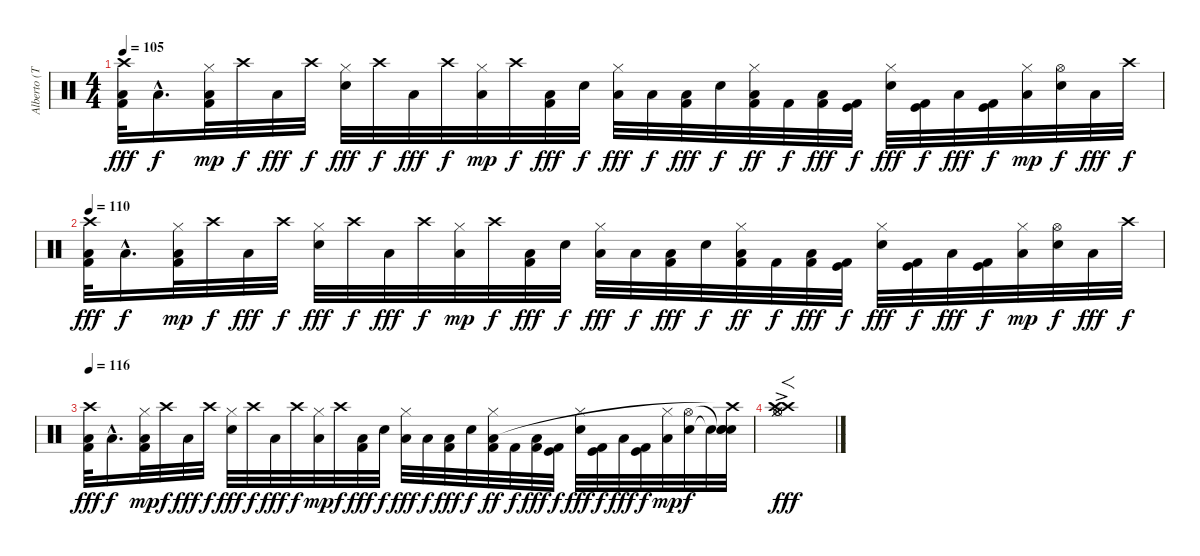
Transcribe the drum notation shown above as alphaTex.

\track ("Alberto (Toshi)" "Alberto (T") {instrument percussion}
\staff {score}
\articulation defaults
\ts (4 4)
\tempo 105
\clef neutral
\ks c
("Low Floor Tom (hit)" "Kick (hit) 2" "Crash high (hit)").32{dy fff} "Low Floor Tom (hit)"{hac}.16{d dy f} ("Low Floor Tom (hit)" "Kick (hit) 2" "Hi-Hat (closed)").32{dy mp} "Crash high (hit)".32{dy f} "Low Floor Tom (hit)".32{dy fff} "Crash high (hit)".32{dy f} ("Electric Snare (hit)" "Hi-Hat (closed)").32{dy fff} "Crash high (hit)".32{dy f} "Low Floor Tom (hit)".32{dy fff} "Crash high (hit)".32{dy f} ("Low Floor Tom (hit)" "Hi-Hat (closed)").32{dy mp} "Crash high (hit)".32{dy f} ("Kick (hit) 2" "Low Tom (hit)").32{dy fff} "Electric Snare (hit)".32{dy f} ("Low Floor Tom (hit)" "Hi-Hat (closed)").32{dy fff} "Low Tom (hit)".32{dy f} ("Kick (hit) 2" "Low Tom (hit)").32{dy fff} "Electric Snare (hit)".32{dy f} ("Kick (hit) 2" "Hi-Hat (closed)" "Low Tom (hit)").32{dy ff} "Kick (hit) 2".32{dy f} ("Kick (hit) 2" "Low Tom (hit)").32{dy fff} ("Kick (hit) 2" "Kick (hit)").32{dy f} ("Electric Snare (hit)" "Hi-Hat (closed)").32{dy fff} ("Kick (hit)" "Kick (hit) 2").32{dy f} "Low Tom (hit)".32{dy fff} ("Kick (hit)" "Kick (hit) 2").32{dy f} ("Low Floor Tom (hit)" "Hi-Hat (closed)").32{dy mp} ("Electric Snare (hit)" "Hi-Hat (open)").32{dy f} "Low Tom (hit)".32{dy fff} "Crash high (hit)".32{dy f} |
\tempo 110
("Low Floor Tom (hit)" "Kick (hit) 2" "Crash high (hit)").32{dy fff} "Low Floor Tom (hit)"{hac}.16{d dy f} ("Low Floor Tom (hit)" "Kick (hit) 2" "Hi-Hat (closed)").32{dy mp} "Crash high (hit)".32{dy f} "Low Floor Tom (hit)".32{dy fff} "Crash high (hit)".32{dy f} ("Electric Snare (hit)" "Hi-Hat (closed)").32{dy fff} "Crash high (hit)".32{dy f} "Low Floor Tom (hit)".32{dy fff} "Crash high (hit)".32{dy f} ("Low Floor Tom (hit)" "Hi-Hat (closed)").32{dy mp} "Crash high (hit)".32{dy f} ("Kick (hit) 2" "Low Tom (hit)").32{dy fff} "Electric Snare (hit)".32{dy f} ("Low Floor Tom (hit)" "Hi-Hat (closed)").32{dy fff} "Low Tom (hit)".32{dy f} ("Kick (hit) 2" "Low Tom (hit)").32{dy fff} "Electric Snare (hit)".32{dy f} ("Kick (hit) 2" "Hi-Hat (closed)" "Low Tom (hit)").32{dy ff} "Kick (hit) 2".32{dy f} ("Kick (hit) 2" "Low Tom (hit)").32{dy fff} ("Kick (hit) 2" "Kick (hit)").32{dy f} ("Electric Snare (hit)" "Hi-Hat (closed)").32{dy fff} ("Kick (hit)" "Kick (hit) 2").32{dy f} "Low Tom (hit)".32{dy fff} ("Kick (hit)" "Kick (hit) 2").32{dy f} ("Low Floor Tom (hit)" "Hi-Hat (closed)").32{dy mp} ("Electric Snare (hit)" "Hi-Hat (open)").32{dy f} "Low Tom (hit)".32{dy fff} "Crash high (hit)".32{dy f} |
\tempo 116
("Low Floor Tom (hit)" "Kick (hit) 2" "Crash high (hit)").32{dy fff} "Low Floor Tom (hit)"{hac}.16{d dy f} ("Low Floor Tom (hit)" "Kick (hit) 2" "Hi-Hat (closed)").32{dy mp} "Crash high (hit)".32{dy f} "Low Floor Tom (hit)".32{dy fff} "Crash high (hit)".32{dy f} ("Electric Snare (hit)" "Hi-Hat (closed)").32{dy fff} "Crash high (hit)".32{dy f} "Low Floor Tom (hit)".32{dy fff} "Crash high (hit)".32{dy f} ("Low Floor Tom (hit)" "Hi-Hat (closed)").32{dy mp} "Crash high (hit)".32{dy f} ("Kick (hit) 2" "Low Tom (hit)").32{dy fff} "Electric Snare (hit)".32{dy f} ("Low Floor Tom (hit)" "Hi-Hat (closed)").32{dy fff} "Low Tom (hit)".32{dy f} ("Kick (hit) 2" "Low Tom (hit)").32{dy fff} "Electric Snare (hit)".32{dy f} ("Kick (hit) 2" "Hi-Hat (closed)" "Low Tom (hit)").32{dy ff} "Kick (hit) 2".32{dy f} ("Kick (hit) 2" "Low Tom (hit)").32{dy fff} ("Kick (hit) 2" "Kick (hit)").32{dy f} ("Electric Snare (hit)" "Hi-Hat (closed)").32{dy fff} ("Kick (hit)" "Kick (hit) 2").32{dy f} "Low Tom (hit)".32{dy fff} ("Kick (hit)" "Kick (hit) 2").32{dy f} ("Low Floor Tom (hit)" "Hi-Hat (closed)").32{dy mp} ("Electric Snare (hit)" "Hi-Hat (open)").32{dy f} "Snare (hit)"{t}.32 ("Snare (hit)"{t} "Snare (hit)"{t} "Crash high (hit)"{t} "Snare (hit)").32 |
("Crash high (hit)"{ac} "Crash high (hit)" "Hi-Hat (closed)" "Hi-Hat (closed)" "Hi-Hat (open)" "Hi-Hat (open)").1{f dy fff}
